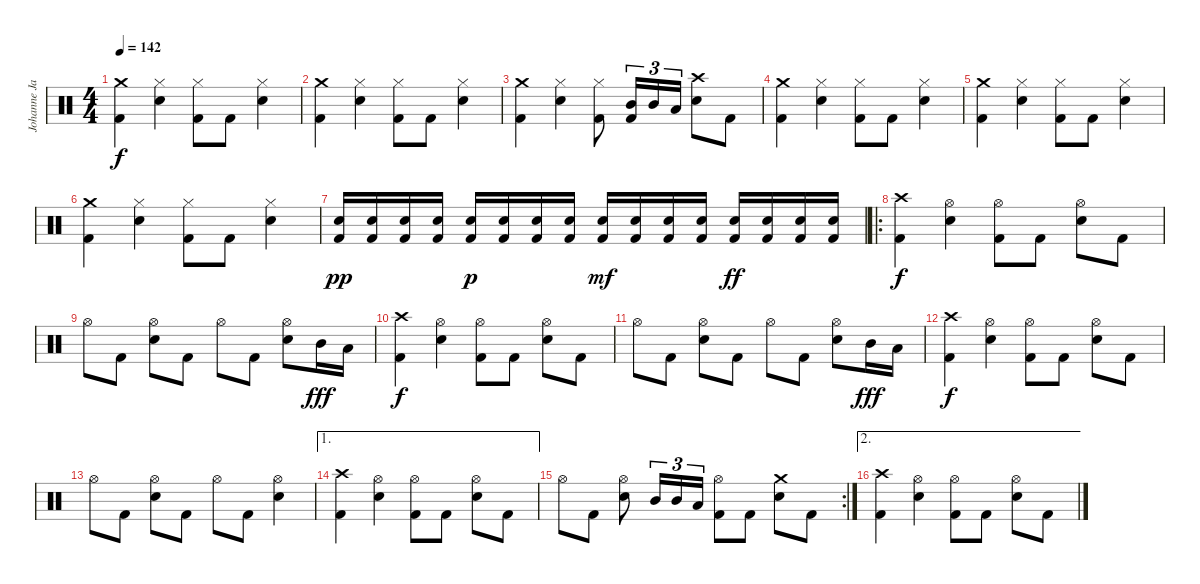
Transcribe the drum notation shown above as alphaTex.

\track ("Johanne James" "Johanne Ja") {instrument percussion}
\staff {score}
\articulation defaults
\ts (4 4)
\tempo 142
\clef neutral
\ks c
("Crash medium (hit)" "Kick (hit) 2").4{dy f} ("Hi-Hat (closed)" "Snare (hit) 2").4 ("Hi-Hat (closed)" "Kick (hit) 2").8 "Kick (hit) 2".8 ("Hi-Hat (closed)" "Snare (hit) 2").4 |
("Crash medium (hit)" "Kick (hit) 2").4 ("Hi-Hat (closed)" "Snare (hit) 2").4 ("Hi-Hat (closed)" "Kick (hit) 2").8 "Kick (hit) 2".8 ("Hi-Hat (closed)" "Snare (hit) 2").4 |
("Crash medium (hit)" "Kick (hit) 2").4 ("Hi-Hat (closed)" "Snare (hit) 2").4 ("Hi-Hat (closed)" "Kick (hit) 2").8 ("Mid Tom (hit)" "Kick (hit) 2").16{tu (3 2)} "Mid Tom (hit)".16{tu (3 2)} "Low Tom (hit)".16{tu (3 2)} ("Crash high (hit)" "Snare (hit) 2").8 "Kick (hit) 2".8 |
("Crash medium (hit)" "Kick (hit) 2").4 ("Hi-Hat (closed)" "Snare (hit) 2").4 ("Hi-Hat (closed)" "Kick (hit) 2").8 "Kick (hit) 2".8 ("Hi-Hat (closed)" "Snare (hit) 2").4 |
("Crash medium (hit)" "Kick (hit) 2").4 ("Hi-Hat (closed)" "Snare (hit) 2").4 ("Hi-Hat (closed)" "Kick (hit) 2").8 "Kick (hit) 2".8 ("Hi-Hat (closed)" "Snare (hit) 2").4 |
("Crash medium (hit)" "Kick (hit) 2").4 ("Hi-Hat (closed)" "Snare (hit) 2").4 ("Hi-Hat (closed)" "Kick (hit) 2").8 "Kick (hit) 2".8 ("Hi-Hat (closed)" "Snare (hit) 2").4 |
("Snare (hit) 2" "Kick (hit) 2").16{dy pp} ("Snare (hit) 2" "Kick (hit) 2").16 ("Snare (hit) 2" "Kick (hit) 2").16 ("Snare (hit) 2" "Kick (hit) 2").16 ("Snare (hit) 2" "Kick (hit) 2").16{dy p} ("Snare (hit) 2" "Kick (hit) 2").16 ("Snare (hit) 2" "Kick (hit) 2").16 ("Snare (hit) 2" "Kick (hit) 2").16 ("Snare (hit) 2" "Kick (hit) 2").16{dy mf} ("Snare (hit) 2" "Kick (hit) 2").16 ("Snare (hit) 2" "Kick (hit) 2").16 ("Snare (hit) 2" "Kick (hit) 2").16 ("Snare (hit) 2" "Kick (hit) 2").16{dy ff} ("Snare (hit) 2" "Kick (hit) 2").16 ("Snare (hit) 2" "Kick (hit) 2").16 ("Snare (hit) 2" "Kick (hit) 2").16 |
\ro
("Crash high (hit)" "Kick (hit) 2").4{dy f} ("Hi-Hat (open)" "Snare (hit) 2").4 ("Hi-Hat (open)" "Kick (hit) 2").8 "Kick (hit) 2".8 ("Hi-Hat (open)" "Snare (hit) 2").8 "Kick (hit) 2".8 |
"Hi-Hat (open)".8 "Kick (hit) 2".8 ("Hi-Hat (open)" "Snare (hit) 2").8 "Kick (hit) 2".8 "Hi-Hat (open)".8 "Kick (hit) 2".8 ("Hi-Hat (open)" "Snare (hit) 2").8 "Mid Tom (hit)".16{dy fff} "Low Tom (hit)".16 |
("Crash high (hit)" "Kick (hit) 2").4{dy f} ("Hi-Hat (open)" "Snare (hit) 2").4 ("Hi-Hat (open)" "Kick (hit) 2").8 "Kick (hit) 2".8 ("Hi-Hat (open)" "Snare (hit) 2").8 "Kick (hit) 2".8 |
"Hi-Hat (open)".8 "Kick (hit) 2".8 ("Hi-Hat (open)" "Snare (hit) 2").8 "Kick (hit) 2".8 "Hi-Hat (open)".8 "Kick (hit) 2".8 ("Hi-Hat (open)" "Snare (hit) 2").8 "Mid Tom (hit)".16{dy fff} "Low Tom (hit)".16 |
("Crash high (hit)" "Kick (hit) 2").4{dy f} ("Hi-Hat (open)" "Snare (hit) 2").4 ("Hi-Hat (open)" "Kick (hit) 2").8 "Kick (hit) 2".8 ("Hi-Hat (open)" "Snare (hit) 2").8 "Kick (hit) 2".8 |
"Hi-Hat (open)".8 "Kick (hit) 2".8 ("Hi-Hat (open)" "Snare (hit) 2").8 "Kick (hit) 2".8 "Hi-Hat (open)".8 "Kick (hit) 2".8 ("Hi-Hat (open)" "Snare (hit) 2").4 |
\ae 1
("Crash high (hit)" "Kick (hit) 2").4 ("Hi-Hat (open)" "Snare (hit) 2").4 ("Hi-Hat (open)" "Kick (hit) 2").8 "Kick (hit) 2".8 ("Hi-Hat (open)" "Snare (hit) 2").8 "Kick (hit) 2".8 |
\rc 2 "Hi-Hat (open)".8 "Kick (hit) 2".8
("Hi-Hat (open)" "Snare (hit) 2").8 "Mid Tom (hit)".16{tu (3 2)} "Mid Tom (hit)".16{tu (3 2)} "Low Tom (hit)".16{tu (3 2)} ("Hi-Hat (open)" "Kick (hit) 2").8 "Kick (hit) 2".8 ("Crash medium (hit)" "Snare (hit) 2").8 "Kick (hit) 2".8 |
\ae 2
("Crash high (hit)" "Kick (hit) 2").4 ("Hi-Hat (open)" "Snare (hit) 2").4 ("Hi-Hat (open)" "Kick (hit) 2").8 "Kick (hit) 2".8 ("Hi-Hat (open)" "Snare (hit) 2").8 "Kick (hit) 2".8
